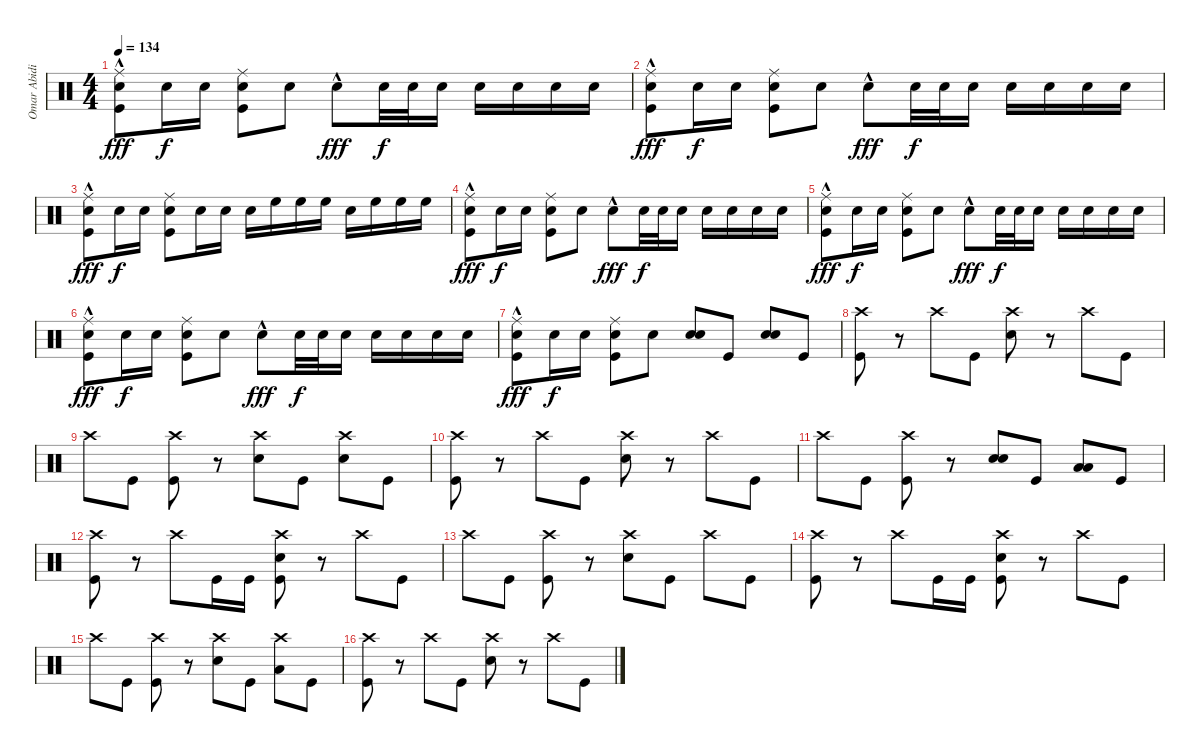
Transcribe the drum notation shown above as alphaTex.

\track ("Omar Abidi" "Omar Abidi") {instrument percussion}
\staff {score}
\articulation defaults
\ts (4 4)
\tempo 134
\clef neutral
\ks c
("Ride (middle)" "Snare (hit) 2"{hac} "Kick (hit)").8{dy fff} "Snare (hit) 2".16{dy f} "Snare (hit) 2".16 ("Ride (middle)" "Snare (hit) 2" "Kick (hit)").8 "Snare (hit) 2".8 "Snare (hit) 2"{hac}.8{dy fff} "Snare (hit) 2".32{dy f} "Snare (hit) 2".32 "Snare (hit) 2".16 "Snare (hit) 2".16 "Snare (hit) 2".16 "Snare (hit) 2".16 "Snare (hit) 2".16 |
("Ride (middle)" "Snare (hit) 2"{hac} "Kick (hit)").8{dy fff} "Snare (hit) 2".16{dy f} "Snare (hit) 2".16 ("Ride (middle)" "Snare (hit) 2" "Kick (hit)").8 "Snare (hit) 2".8 "Snare (hit) 2"{hac}.8{dy fff} "Snare (hit) 2".32{dy f} "Snare (hit) 2".32 "Snare (hit) 2".16 "Snare (hit) 2".16 "Snare (hit) 2".16 "Snare (hit) 2".16 "Snare (hit) 2".16 |
("Ride (middle)" "Snare (hit) 2"{hac} "Kick (hit)").8{dy fff} "Snare (hit) 2".16{dy f} "Snare (hit) 2".16 ("Ride (middle)" "Snare (hit) 2" "Kick (hit)").8 "Snare (hit) 2".16 "Snare (hit) 2".16 "Snare (hit) 2".16 "High Floor Tom (hit)".16 "High Floor Tom (hit)".16 "High Floor Tom (hit)".16 "Snare (hit) 2".16 "High Floor Tom (hit)".16 "High Floor Tom (hit)".16 "High Floor Tom (hit)".16 |
("Ride (middle)" "Snare (hit) 2"{hac} "Kick (hit)").8{dy fff} "Snare (hit) 2".16{dy f} "Snare (hit) 2".16 ("Ride (middle)" "Snare (hit) 2" "Kick (hit)").8 "Snare (hit) 2".8 "Snare (hit) 2"{hac}.8{dy fff} "Snare (hit) 2".32{dy f} "Snare (hit) 2".32 "Snare (hit) 2".16 "Snare (hit) 2".16 "Snare (hit) 2".16 "Snare (hit) 2".16 "Snare (hit) 2".16 |
("Ride (middle)" "Snare (hit) 2"{hac} "Kick (hit)").8{dy fff} "Snare (hit) 2".16{dy f} "Snare (hit) 2".16 ("Ride (middle)" "Snare (hit) 2" "Kick (hit)").8 "Snare (hit) 2".8 "Snare (hit) 2"{hac}.8{dy fff} "Snare (hit) 2".32{dy f} "Snare (hit) 2".32 "Snare (hit) 2".16 "Snare (hit) 2".16 "Snare (hit) 2".16 "Snare (hit) 2".16 "Snare (hit) 2".16 |
("Ride (middle)" "Snare (hit) 2"{hac} "Kick (hit)").8{dy fff} "Snare (hit) 2".16{dy f} "Snare (hit) 2".16 ("Ride (middle)" "Snare (hit) 2" "Kick (hit)").8 "Snare (hit) 2".8 "Snare (hit) 2"{hac}.8{dy fff} "Snare (hit) 2".32{dy f} "Snare (hit) 2".32 "Snare (hit) 2".16 "Snare (hit) 2".16 "Snare (hit) 2".16 "Snare (hit) 2".16 "Snare (hit) 2".16 |
("Ride (middle)" "Snare (hit) 2"{hac} "Kick (hit)").8{dy fff} "Snare (hit) 2".16{dy f} "Snare (hit) 2".16 ("Ride (middle)" "Snare (hit) 2" "Kick (hit)").8 "Snare (hit) 2".8 ("Snare (hit) 2" "Snare (hit) 2").8 "Kick (hit)".8 ("Snare (hit) 2" "Snare (hit) 2").8 "Kick (hit)".8 |
("Crash high (hit)" "Kick (hit)").8 r.8 "Crash high (hit)".8 "Kick (hit)".8 ("Crash high (hit)" "Snare (hit) 2").8 r.8 "Crash high (hit)".8 "Kick (hit)".8 |
"Crash high (hit)".8 "Kick (hit)".8 ("Crash high (hit)" "Kick (hit)").8 r.8 ("Crash high (hit)" "Snare (hit) 2").8 "Kick (hit)".8 ("Crash high (hit)" "Snare (hit) 2").8 "Kick (hit)".8 |
("Crash high (hit)" "Kick (hit)").8 r.8 "Crash high (hit)".8 "Kick (hit)".8 ("Crash high (hit)" "Snare (hit) 2").8 r.8 "Crash high (hit)".8 "Kick (hit)".8 |
"Crash high (hit)".8 "Kick (hit)".8 ("Crash high (hit)" "Kick (hit)").8 r.8 ("Snare (hit) 2" "Snare (hit) 2").8 "Kick (hit)".8 ("Low Floor Tom (hit)" "Low Floor Tom (hit)").8 "Kick (hit)".8 |
("Crash high (hit)" "Kick (hit)").8 r.8 "Crash high (hit)".8 "Kick (hit)".16 "Kick (hit)".16 ("Crash high (hit)" "Snare (hit) 2" "Kick (hit)").8 r.8 "Crash high (hit)".8 "Kick (hit)".8 |
"Crash high (hit)".8 "Kick (hit)".8 ("Crash high (hit)" "Kick (hit)").8 r.8 ("Crash high (hit)" "Snare (hit) 2").8 "Kick (hit)".8 "Crash high (hit)".8 "Kick (hit)".8 |
("Crash high (hit)" "Kick (hit)").8 r.8 "Crash high (hit)".8 "Kick (hit)".16 "Kick (hit)".16 ("Crash high (hit)" "Snare (hit) 2" "Kick (hit)").8 r.8 "Crash high (hit)".8 "Kick (hit)".8 |
"Crash high (hit)".8 "Kick (hit)".8 ("Crash high (hit)" "Kick (hit)").8 r.8 ("Crash high (hit)" "Snare (hit) 2").8 "Kick (hit)".8 ("Crash high (hit)" "Low Floor Tom (hit)").8 "Kick (hit)".8 |
("Crash high (hit)" "Kick (hit)").8 r.8 "Crash high (hit)".8 "Kick (hit)".8 ("Crash high (hit)" "Snare (hit) 2").8 r.8 "Crash high (hit)".8 "Kick (hit)".8
